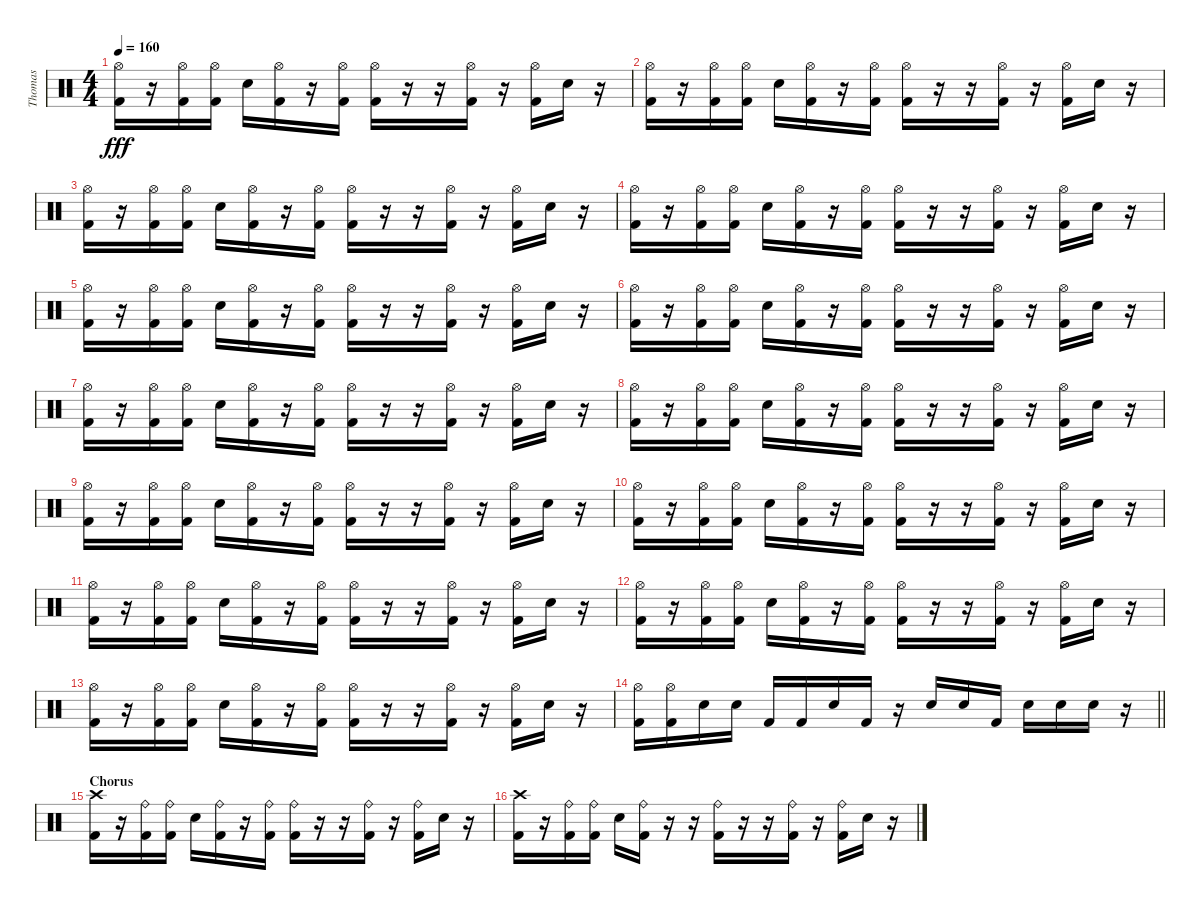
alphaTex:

\track ("Thomas " "Thomas ") {instrument percussion}
\staff {score}
\articulation defaults
\ts (4 4)
\tempo 160
\clef neutral
\ks c
("Hi-Hat (open)" "Kick (hit) 2").16{dy fff} r.16 ("Hi-Hat (open)" "Kick (hit) 2").16 ("Hi-Hat (open)" "Kick (hit) 2").16 "Electric Snare (hit)".16 ("Hi-Hat (open)" "Kick (hit) 2").16 r.16 ("Hi-Hat (open)" "Kick (hit) 2").16 ("Hi-Hat (open)" "Kick (hit) 2").16 r.16 r.16 ("Hi-Hat (open)" "Kick (hit) 2").16 r.16 ("Hi-Hat (open)" "Kick (hit) 2").16 "Electric Snare (hit)".16 r.16 |
("Hi-Hat (open)" "Kick (hit) 2").16 r.16 ("Hi-Hat (open)" "Kick (hit) 2").16 ("Hi-Hat (open)" "Kick (hit) 2").16 "Electric Snare (hit)".16 ("Hi-Hat (open)" "Kick (hit) 2").16 r.16 ("Hi-Hat (open)" "Kick (hit) 2").16 ("Hi-Hat (open)" "Kick (hit) 2").16 r.16 r.16 ("Hi-Hat (open)" "Kick (hit) 2").16 r.16 ("Hi-Hat (open)" "Kick (hit) 2").16 "Electric Snare (hit)".16 r.16 |
("Hi-Hat (open)" "Kick (hit) 2").16 r.16 ("Hi-Hat (open)" "Kick (hit) 2").16 ("Hi-Hat (open)" "Kick (hit) 2").16 "Electric Snare (hit)".16 ("Hi-Hat (open)" "Kick (hit) 2").16 r.16 ("Hi-Hat (open)" "Kick (hit) 2").16 ("Hi-Hat (open)" "Kick (hit) 2").16 r.16 r.16 ("Hi-Hat (open)" "Kick (hit) 2").16 r.16 ("Hi-Hat (open)" "Kick (hit) 2").16 "Electric Snare (hit)".16 r.16 |
("Hi-Hat (open)" "Kick (hit) 2").16 r.16 ("Hi-Hat (open)" "Kick (hit) 2").16 ("Hi-Hat (open)" "Kick (hit) 2").16 "Electric Snare (hit)".16 ("Hi-Hat (open)" "Kick (hit) 2").16 r.16 ("Hi-Hat (open)" "Kick (hit) 2").16 ("Hi-Hat (open)" "Kick (hit) 2").16 r.16 r.16 ("Hi-Hat (open)" "Kick (hit) 2").16 r.16 ("Hi-Hat (open)" "Kick (hit) 2").16 "Electric Snare (hit)".16 r.16 |
("Hi-Hat (open)" "Kick (hit) 2").16 r.16 ("Hi-Hat (open)" "Kick (hit) 2").16 ("Hi-Hat (open)" "Kick (hit) 2").16 "Electric Snare (hit)".16 ("Hi-Hat (open)" "Kick (hit) 2").16 r.16 ("Hi-Hat (open)" "Kick (hit) 2").16 ("Hi-Hat (open)" "Kick (hit) 2").16 r.16 r.16 ("Hi-Hat (open)" "Kick (hit) 2").16 r.16 ("Hi-Hat (open)" "Kick (hit) 2").16 "Electric Snare (hit)".16 r.16 |
("Hi-Hat (open)" "Kick (hit) 2").16 r.16 ("Hi-Hat (open)" "Kick (hit) 2").16 ("Hi-Hat (open)" "Kick (hit) 2").16 "Electric Snare (hit)".16 ("Hi-Hat (open)" "Kick (hit) 2").16 r.16 ("Hi-Hat (open)" "Kick (hit) 2").16 ("Hi-Hat (open)" "Kick (hit) 2").16 r.16 r.16 ("Hi-Hat (open)" "Kick (hit) 2").16 r.16 ("Hi-Hat (open)" "Kick (hit) 2").16 "Electric Snare (hit)".16 r.16 |
("Hi-Hat (open)" "Kick (hit) 2").16 r.16 ("Hi-Hat (open)" "Kick (hit) 2").16 ("Hi-Hat (open)" "Kick (hit) 2").16 "Electric Snare (hit)".16 ("Hi-Hat (open)" "Kick (hit) 2").16 r.16 ("Hi-Hat (open)" "Kick (hit) 2").16 ("Hi-Hat (open)" "Kick (hit) 2").16 r.16 r.16 ("Hi-Hat (open)" "Kick (hit) 2").16 r.16 ("Hi-Hat (open)" "Kick (hit) 2").16 "Electric Snare (hit)".16 r.16 |
("Hi-Hat (open)" "Kick (hit) 2").16 r.16 ("Hi-Hat (open)" "Kick (hit) 2").16 ("Hi-Hat (open)" "Kick (hit) 2").16 "Electric Snare (hit)".16 ("Hi-Hat (open)" "Kick (hit) 2").16 r.16 ("Hi-Hat (open)" "Kick (hit) 2").16 ("Hi-Hat (open)" "Kick (hit) 2").16 r.16 r.16 ("Hi-Hat (open)" "Kick (hit) 2").16 r.16 ("Hi-Hat (open)" "Kick (hit) 2").16 "Electric Snare (hit)".16 r.16 |
("Hi-Hat (open)" "Kick (hit) 2").16 r.16 ("Hi-Hat (open)" "Kick (hit) 2").16 ("Hi-Hat (open)" "Kick (hit) 2").16 "Electric Snare (hit)".16 ("Hi-Hat (open)" "Kick (hit) 2").16 r.16 ("Hi-Hat (open)" "Kick (hit) 2").16 ("Hi-Hat (open)" "Kick (hit) 2").16 r.16 r.16 ("Hi-Hat (open)" "Kick (hit) 2").16 r.16 ("Hi-Hat (open)" "Kick (hit) 2").16 "Electric Snare (hit)".16 r.16 |
("Hi-Hat (open)" "Kick (hit) 2").16 r.16 ("Hi-Hat (open)" "Kick (hit) 2").16 ("Hi-Hat (open)" "Kick (hit) 2").16 "Electric Snare (hit)".16 ("Hi-Hat (open)" "Kick (hit) 2").16 r.16 ("Hi-Hat (open)" "Kick (hit) 2").16 ("Hi-Hat (open)" "Kick (hit) 2").16 r.16 r.16 ("Hi-Hat (open)" "Kick (hit) 2").16 r.16 ("Hi-Hat (open)" "Kick (hit) 2").16 "Electric Snare (hit)".16 r.16 |
("Hi-Hat (open)" "Kick (hit) 2").16 r.16 ("Hi-Hat (open)" "Kick (hit) 2").16 ("Hi-Hat (open)" "Kick (hit) 2").16 "Electric Snare (hit)".16 ("Hi-Hat (open)" "Kick (hit) 2").16 r.16 ("Hi-Hat (open)" "Kick (hit) 2").16 ("Hi-Hat (open)" "Kick (hit) 2").16 r.16 r.16 ("Hi-Hat (open)" "Kick (hit) 2").16 r.16 ("Hi-Hat (open)" "Kick (hit) 2").16 "Electric Snare (hit)".16 r.16 |
("Hi-Hat (open)" "Kick (hit) 2").16 r.16 ("Hi-Hat (open)" "Kick (hit) 2").16 ("Hi-Hat (open)" "Kick (hit) 2").16 "Electric Snare (hit)".16 ("Hi-Hat (open)" "Kick (hit) 2").16 r.16 ("Hi-Hat (open)" "Kick (hit) 2").16 ("Hi-Hat (open)" "Kick (hit) 2").16 r.16 r.16 ("Hi-Hat (open)" "Kick (hit) 2").16 r.16 ("Hi-Hat (open)" "Kick (hit) 2").16 "Electric Snare (hit)".16 r.16 |
("Hi-Hat (open)" "Kick (hit) 2").16 r.16 ("Hi-Hat (open)" "Kick (hit) 2").16 ("Hi-Hat (open)" "Kick (hit) 2").16 "Electric Snare (hit)".16 ("Hi-Hat (open)" "Kick (hit) 2").16 r.16 ("Hi-Hat (open)" "Kick (hit) 2").16 ("Hi-Hat (open)" "Kick (hit) 2").16 r.16 r.16 ("Hi-Hat (open)" "Kick (hit) 2").16 r.16 ("Hi-Hat (open)" "Kick (hit) 2").16 "Electric Snare (hit)".16 r.16 |
\barLineRight lightlight
("Hi-Hat (open)" "Kick (hit) 2").16 ("Hi-Hat (open)" "Kick (hit) 2").16 "Electric Snare (hit)".16 "Electric Snare (hit)".16 "Kick (hit) 2".16 "Kick (hit) 2".16 "Electric Snare (hit)".16 "Kick (hit) 2".16 r.16 "Electric Snare (hit)".16 "Electric Snare (hit)".16 "Kick (hit) 2".16 "Electric Snare (hit)".16 "Electric Snare (hit)".16 "Electric Snare (hit)".16 r.16 |
\section ("" "Chorus")
("Crash high (hit)" "Kick (hit) 2").16 r.16 ("Ride (bell)" "Kick (hit) 2").16 ("Ride (bell)" "Kick (hit) 2").16 "Electric Snare (hit)".16 ("Ride (bell)" "Kick (hit) 2").16 r.16 ("Ride (bell)" "Kick (hit) 2").16 ("Ride (bell)" "Kick (hit) 2").16 r.16 r.16 ("Ride (bell)" "Kick (hit) 2").16 r.16 ("Ride (bell)" "Kick (hit) 2").16 "Electric Snare (hit)".16 r.16 |
("Crash high (hit)" "Kick (hit) 2").16 r.16 ("Ride (bell)" "Kick (hit) 2").16 ("Ride (bell)" "Kick (hit) 2").16 "Electric Snare (hit)".16 ("Ride (bell)" "Kick (hit) 2").16 r.16 r.16 ("Ride (bell)" "Kick (hit) 2").16 r.16 r.16 ("Ride (bell)" "Kick (hit) 2").16 r.16 ("Ride (bell)" "Kick (hit) 2").16 "Electric Snare (hit)".16 r.16
